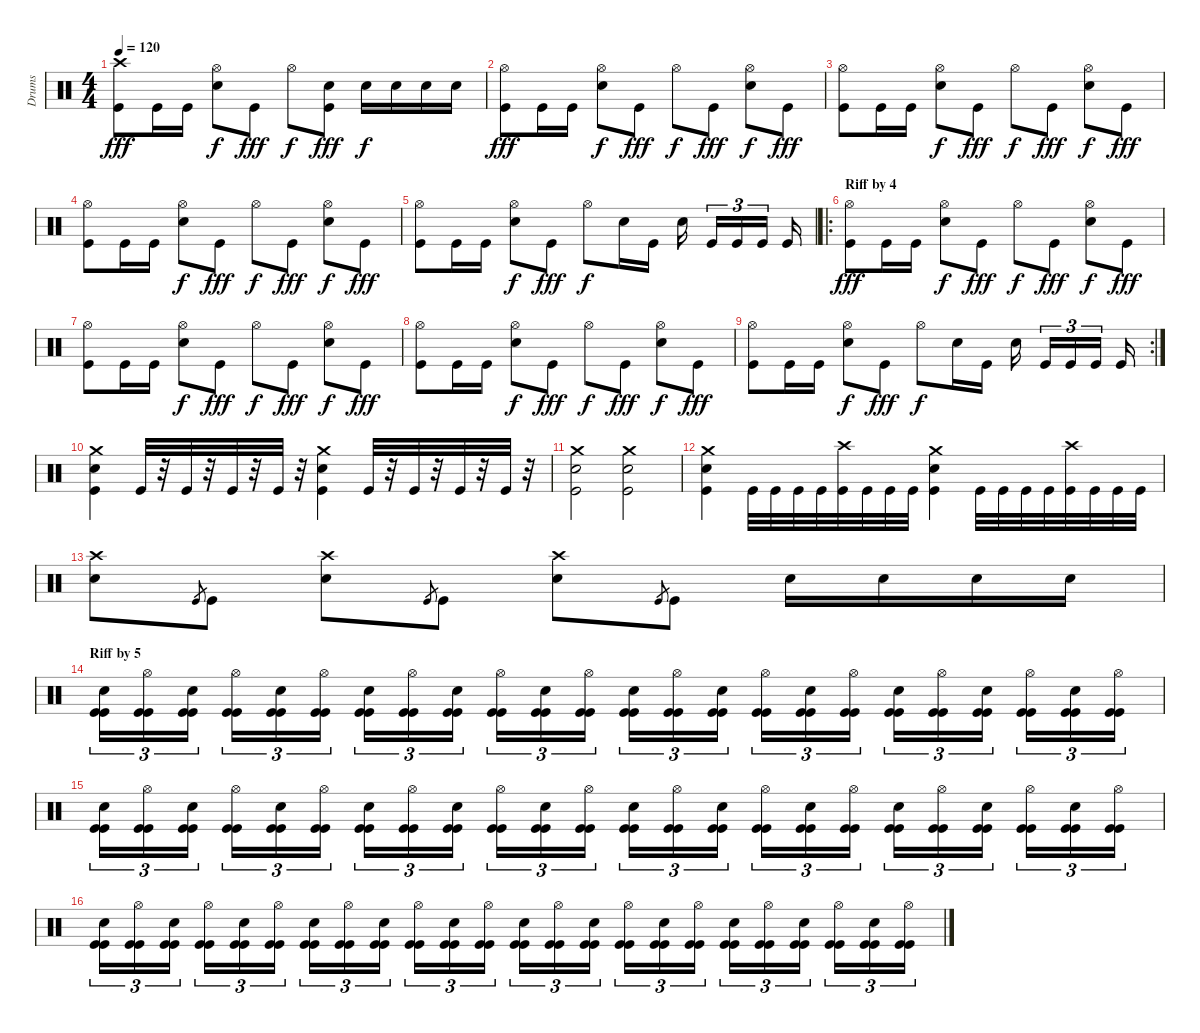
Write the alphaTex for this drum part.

\track ("Drums" "Drums") {instrument percussion}
\staff {score}
\articulation defaults
\ts (4 4)
\tempo 120
\clef neutral
\ks c
("Crash high (hit)" "Kick (hit)").8{dy fff} "Kick (hit)".16 "Kick (hit)".16 ("Hi-Hat (open)" "Electric Snare (hit)").8{dy f} "Kick (hit)".8{dy fff} "Hi-Hat (open)".8{dy f} ("Electric Snare (hit)" "Kick (hit)").8{dy fff} "Electric Snare (hit)".16{dy f} "Electric Snare (hit)".16 "Electric Snare (hit)".16 "Electric Snare (hit)".16 |
("Hi-Hat (open)" "Kick (hit)").8{dy fff} "Kick (hit)".16 "Kick (hit)".16 ("Hi-Hat (open)" "Electric Snare (hit)").8{dy f} "Kick (hit)".8{dy fff} "Hi-Hat (open)".8{dy f} "Kick (hit)".8{dy fff} ("Hi-Hat (open)" "Electric Snare (hit)").8{dy f} "Kick (hit)".8{dy fff} |
("Hi-Hat (open)" "Kick (hit)").8 "Kick (hit)".16 "Kick (hit)".16 ("Hi-Hat (open)" "Electric Snare (hit)").8{dy f} "Kick (hit)".8{dy fff} "Hi-Hat (open)".8{dy f} "Kick (hit)".8{dy fff} ("Hi-Hat (open)" "Electric Snare (hit)").8{dy f} "Kick (hit)".8{dy fff} |
("Hi-Hat (open)" "Kick (hit)").8 "Kick (hit)".16 "Kick (hit)".16 ("Hi-Hat (open)" "Electric Snare (hit)").8{dy f} "Kick (hit)".8{dy fff} "Hi-Hat (open)".8{dy f} "Kick (hit)".8{dy fff} ("Hi-Hat (open)" "Electric Snare (hit)").8{dy f} "Kick (hit)".8{dy fff} |
("Hi-Hat (open)" "Kick (hit)").8 "Kick (hit)".16 "Kick (hit)".16 ("Hi-Hat (open)" "Electric Snare (hit)").8{dy f} "Kick (hit)".8{dy fff} "Hi-Hat (open)".8{dy f} "Electric Snare (hit)".16 "Kick (hit)".16 "Electric Snare (hit)".16 "Kick (hit)".16{tu (3 2)} "Kick (hit)".16{tu (3 2)} "Kick (hit)".16{tu (3 2)} "Kick (hit)".16 |
\ro
\section ("" "Riff by 4")
("Hi-Hat (open)" "Kick (hit)").8{dy fff} "Kick (hit)".16 "Kick (hit)".16 ("Hi-Hat (open)" "Electric Snare (hit)").8{dy f} "Kick (hit)".8{dy fff} "Hi-Hat (open)".8{dy f} "Kick (hit)".8{dy fff} ("Hi-Hat (open)" "Electric Snare (hit)").8{dy f} "Kick (hit)".8{dy fff} |
("Hi-Hat (open)" "Kick (hit)").8 "Kick (hit)".16 "Kick (hit)".16 ("Hi-Hat (open)" "Electric Snare (hit)").8{dy f} "Kick (hit)".8{dy fff} "Hi-Hat (open)".8{dy f} "Kick (hit)".8{dy fff} ("Hi-Hat (open)" "Electric Snare (hit)").8{dy f} "Kick (hit)".8{dy fff} |
("Hi-Hat (open)" "Kick (hit)").8 "Kick (hit)".16 "Kick (hit)".16 ("Hi-Hat (open)" "Electric Snare (hit)").8{dy f} "Kick (hit)".8{dy fff} "Hi-Hat (open)".8{dy f} "Kick (hit)".8{dy fff} ("Hi-Hat (open)" "Electric Snare (hit)").8{dy f} "Kick (hit)".8{dy fff} |
\rc 2
("Hi-Hat (open)" "Kick (hit)").8 "Kick (hit)".16 "Kick (hit)".16 ("Hi-Hat (open)" "Electric Snare (hit)").8{dy f} "Kick (hit)".8{dy fff} "Hi-Hat (open)".8{dy f} "Electric Snare (hit)".16 "Kick (hit)".16 "Electric Snare (hit)".16 "Kick (hit)".16{tu (3 2)} "Kick (hit)".16{tu (3 2)} "Kick (hit)".16{tu (3 2)} "Kick (hit)".16 |
("Crash medium (hit)" "Electric Snare (hit)" "Kick (hit)").4 "Kick (hit)".32 r.32 "Kick (hit)".32 r.32 "Kick (hit)".32 r.32 "Kick (hit)".32 r.32 ("Crash medium (hit)" "Electric Snare (hit)" "Kick (hit)").4 "Kick (hit)".32 r.32 "Kick (hit)".32 r.32 "Kick (hit)".32 r.32 "Kick (hit)".32 r.32 |
("Crash medium (hit)" "Electric Snare (hit)" "Kick (hit)").2 ("Crash medium (hit)" "Electric Snare (hit)" "Kick (hit)").2 |
("Crash medium (hit)" "Electric Snare (hit)" "Kick (hit)").4 "Kick (hit)".32 "Kick (hit)".32 "Kick (hit)".32 "Kick (hit)".32 ("Crash high (hit)" "Kick (hit)").32 "Kick (hit)".32 "Kick (hit)".32 "Kick (hit)".32 ("Crash medium (hit)" "Electric Snare (hit)" "Kick (hit)").4 "Kick (hit)".32 "Kick (hit)".32 "Kick (hit)".32 "Kick (hit)".32 ("Crash high (hit)" "Kick (hit)").32 "Kick (hit)".32 "Kick (hit)".32 "Kick (hit)".32 |
("Crash high (hit)" "Electric Snare (hit)").8 "Kick (hit)".8{gr} "Kick (hit)".8 ("Crash high (hit)" "Electric Snare (hit)").8 "Kick (hit)".8{gr} "Kick (hit)".8 ("Crash high (hit)" "Electric Snare (hit)").8 "Kick (hit)".8{gr} "Kick (hit)".8 "Electric Snare (hit)".16 "Electric Snare (hit)".16 "Electric Snare (hit)".16 "Electric Snare (hit)".16 |
\section ("" "Riff by 5")
("Electric Snare (hit)" "Kick (hit)" "Kick (hit)").16{tu (3 2)} ("Hi-Hat (open)" "Kick (hit)" "Kick (hit)").16{tu (3 2)} ("Electric Snare (hit)" "Kick (hit)" "Kick (hit)").16{tu (3 2)} ("Hi-Hat (open)" "Kick (hit)" "Kick (hit)").16{tu (3 2)} ("Electric Snare (hit)" "Kick (hit)" "Kick (hit)").16{tu (3 2)} ("Hi-Hat (open)" "Kick (hit)" "Kick (hit)").16{tu (3 2)} ("Electric Snare (hit)" "Kick (hit)" "Kick (hit)").16{tu (3 2)} ("Hi-Hat (open)" "Kick (hit)" "Kick (hit)").16{tu (3 2)} ("Electric Snare (hit)" "Kick (hit)" "Kick (hit)").16{tu (3 2)} ("Hi-Hat (open)" "Kick (hit)" "Kick (hit)").16{tu (3 2)} ("Electric Snare (hit)" "Kick (hit)" "Kick (hit)").16{tu (3 2)} ("Hi-Hat (open)" "Kick (hit)" "Kick (hit)").16{tu (3 2)} ("Electric Snare (hit)" "Kick (hit)" "Kick (hit)").16{tu (3 2)} ("Hi-Hat (open)" "Kick (hit)" "Kick (hit)").16{tu (3 2)} ("Electric Snare (hit)" "Kick (hit)" "Kick (hit)").16{tu (3 2)} ("Hi-Hat (open)" "Kick (hit)" "Kick (hit)").16{tu (3 2)} ("Electric Snare (hit)" "Kick (hit)" "Kick (hit)").16{tu (3 2)} ("Hi-Hat (open)" "Kick (hit)" "Kick (hit)").16{tu (3 2)} ("Electric Snare (hit)" "Kick (hit)" "Kick (hit)").16{tu (3 2)} ("Hi-Hat (open)" "Kick (hit)" "Kick (hit)").16{tu (3 2)} ("Electric Snare (hit)" "Kick (hit)" "Kick (hit)").16{tu (3 2)} ("Hi-Hat (open)" "Kick (hit)" "Kick (hit)").16{tu (3 2)} ("Electric Snare (hit)" "Kick (hit)" "Kick (hit)").16{tu (3 2)} ("Hi-Hat (open)" "Kick (hit)" "Kick (hit)").16{tu (3 2)} |
("Electric Snare (hit)" "Kick (hit)" "Kick (hit)").16{tu (3 2)} ("Hi-Hat (open)" "Kick (hit)" "Kick (hit)").16{tu (3 2)} ("Electric Snare (hit)" "Kick (hit)" "Kick (hit)").16{tu (3 2)} ("Hi-Hat (open)" "Kick (hit)" "Kick (hit)").16{tu (3 2)} ("Electric Snare (hit)" "Kick (hit)" "Kick (hit)").16{tu (3 2)} ("Hi-Hat (open)" "Kick (hit)" "Kick (hit)").16{tu (3 2)} ("Electric Snare (hit)" "Kick (hit)" "Kick (hit)").16{tu (3 2)} ("Hi-Hat (open)" "Kick (hit)" "Kick (hit)").16{tu (3 2)} ("Electric Snare (hit)" "Kick (hit)" "Kick (hit)").16{tu (3 2)} ("Hi-Hat (open)" "Kick (hit)" "Kick (hit)").16{tu (3 2)} ("Electric Snare (hit)" "Kick (hit)" "Kick (hit)").16{tu (3 2)} ("Hi-Hat (open)" "Kick (hit)" "Kick (hit)").16{tu (3 2)} ("Electric Snare (hit)" "Kick (hit)" "Kick (hit)").16{tu (3 2)} ("Hi-Hat (open)" "Kick (hit)" "Kick (hit)").16{tu (3 2)} ("Electric Snare (hit)" "Kick (hit)" "Kick (hit)").16{tu (3 2)} ("Hi-Hat (open)" "Kick (hit)" "Kick (hit)").16{tu (3 2)} ("Electric Snare (hit)" "Kick (hit)" "Kick (hit)").16{tu (3 2)} ("Hi-Hat (open)" "Kick (hit)" "Kick (hit)").16{tu (3 2)} ("Electric Snare (hit)" "Kick (hit)" "Kick (hit)").16{tu (3 2)} ("Hi-Hat (open)" "Kick (hit)" "Kick (hit)").16{tu (3 2)} ("Electric Snare (hit)" "Kick (hit)" "Kick (hit)").16{tu (3 2)} ("Hi-Hat (open)" "Kick (hit)" "Kick (hit)").16{tu (3 2)} ("Electric Snare (hit)" "Kick (hit)" "Kick (hit)").16{tu (3 2)} ("Hi-Hat (open)" "Kick (hit)" "Kick (hit)").16{tu (3 2)} |
("Electric Snare (hit)" "Kick (hit)" "Kick (hit)").16{tu (3 2)} ("Hi-Hat (open)" "Kick (hit)" "Kick (hit)").16{tu (3 2)} ("Electric Snare (hit)" "Kick (hit)" "Kick (hit)").16{tu (3 2)} ("Hi-Hat (open)" "Kick (hit)" "Kick (hit)").16{tu (3 2)} ("Electric Snare (hit)" "Kick (hit)" "Kick (hit)").16{tu (3 2)} ("Hi-Hat (open)" "Kick (hit)" "Kick (hit)").16{tu (3 2)} ("Electric Snare (hit)" "Kick (hit)" "Kick (hit)").16{tu (3 2)} ("Hi-Hat (open)" "Kick (hit)" "Kick (hit)").16{tu (3 2)} ("Electric Snare (hit)" "Kick (hit)" "Kick (hit)").16{tu (3 2)} ("Hi-Hat (open)" "Kick (hit)" "Kick (hit)").16{tu (3 2)} ("Electric Snare (hit)" "Kick (hit)" "Kick (hit)").16{tu (3 2)} ("Hi-Hat (open)" "Kick (hit)" "Kick (hit)").16{tu (3 2)} ("Electric Snare (hit)" "Kick (hit)" "Kick (hit)").16{tu (3 2)} ("Hi-Hat (open)" "Kick (hit)" "Kick (hit)").16{tu (3 2)} ("Electric Snare (hit)" "Kick (hit)" "Kick (hit)").16{tu (3 2)} ("Hi-Hat (open)" "Kick (hit)" "Kick (hit)").16{tu (3 2)} ("Electric Snare (hit)" "Kick (hit)" "Kick (hit)").16{tu (3 2)} ("Hi-Hat (open)" "Kick (hit)" "Kick (hit)").16{tu (3 2)} ("Electric Snare (hit)" "Kick (hit)" "Kick (hit)").16{tu (3 2)} ("Hi-Hat (open)" "Kick (hit)" "Kick (hit)").16{tu (3 2)} ("Electric Snare (hit)" "Kick (hit)" "Kick (hit)").16{tu (3 2)} ("Hi-Hat (open)" "Kick (hit)" "Kick (hit)").16{tu (3 2)} ("Electric Snare (hit)" "Kick (hit)" "Kick (hit)").16{tu (3 2)} ("Hi-Hat (open)" "Kick (hit)" "Kick (hit)").16{tu (3 2)}
